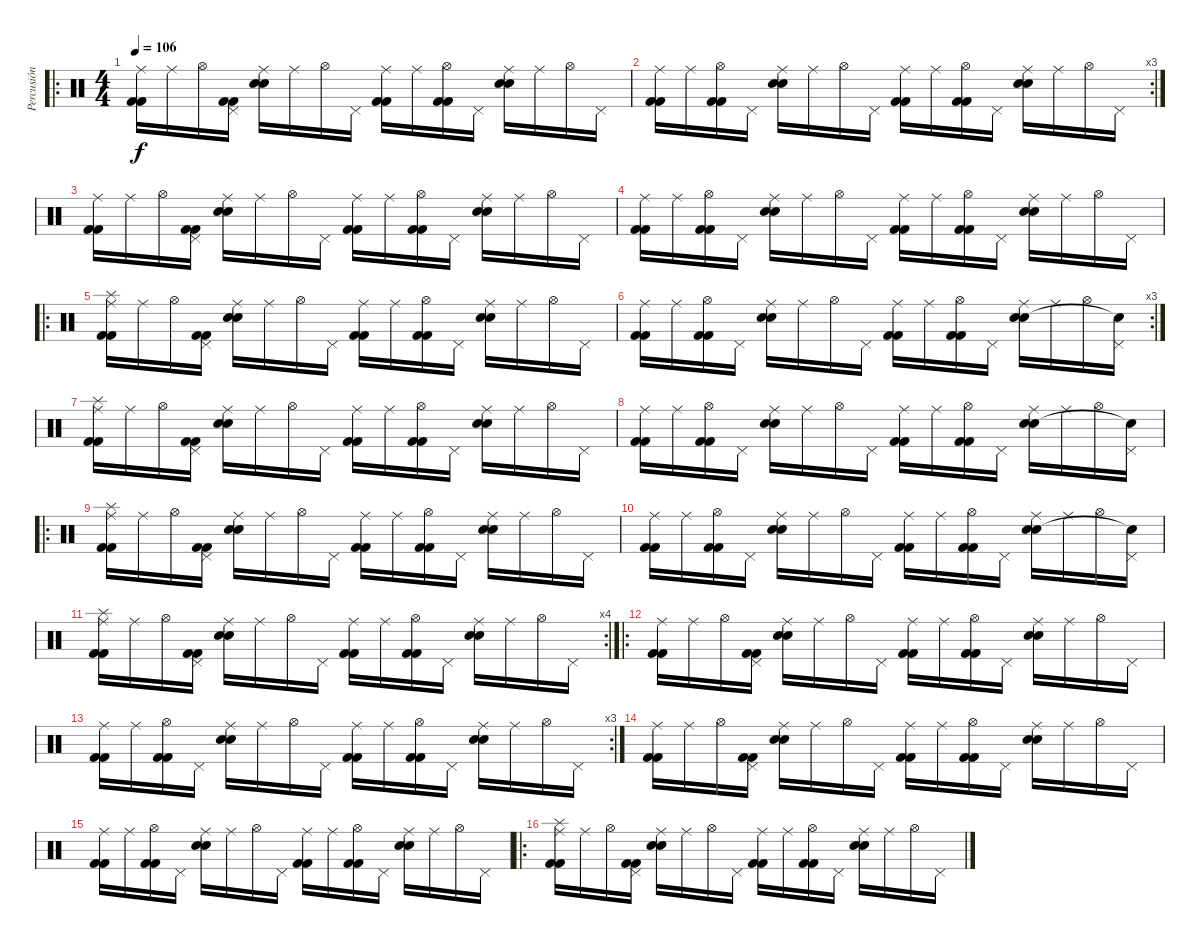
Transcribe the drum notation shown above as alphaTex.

\track ("Percusión" "Percusión") {instrument percussion}
\staff {score}
\articulation defaults
\ro
\ts (4 4)
\tempo 106
\clef neutral
\ks c
("Ride (middle)" "Kick (hit) 2" "Kick (hit) 2").16{dy f} "Ride (middle)".16 "Hi-Hat (open)".16 ("Pedal Hi-Hat (hit)" "Kick (hit) 2" "Kick (hit) 2").16 ("Ride (middle)" "Electric Snare (hit)" "Electric Snare (hit)").16 "Ride (middle)".16 "Hi-Hat (open)".16 "Pedal Hi-Hat (hit)".16 ("Ride (middle)" "Kick (hit) 2" "Kick (hit) 2").16 "Ride (middle)".16 ("Hi-Hat (open)" "Kick (hit) 2" "Kick (hit) 2").16 "Pedal Hi-Hat (hit)".16 ("Ride (middle)" "Electric Snare (hit)" "Electric Snare (hit)").16 "Ride (middle)".16 "Hi-Hat (open)".16 "Pedal Hi-Hat (hit)".16 |
\rc 3
("Ride (middle)" "Kick (hit) 2" "Kick (hit) 2").16 "Ride (middle)".16 ("Hi-Hat (open)" "Kick (hit) 2" "Kick (hit) 2").16 "Pedal Hi-Hat (hit)".16 ("Ride (middle)" "Electric Snare (hit)" "Electric Snare (hit)").16 "Ride (middle)".16 "Hi-Hat (open)".16 "Pedal Hi-Hat (hit)".16 ("Ride (middle)" "Kick (hit) 2" "Kick (hit) 2").16 "Ride (middle)".16 ("Hi-Hat (open)" "Kick (hit) 2" "Kick (hit) 2").16 "Pedal Hi-Hat (hit)".16 ("Ride (middle)" "Electric Snare (hit)" "Electric Snare (hit)").16 "Ride (middle)".16 "Hi-Hat (open)".16 "Pedal Hi-Hat (hit)".16 |
("Ride (middle)" "Kick (hit) 2" "Kick (hit) 2").16 "Ride (middle)".16 "Hi-Hat (open)".16 ("Pedal Hi-Hat (hit)" "Kick (hit) 2" "Kick (hit) 2").16 ("Ride (middle)" "Electric Snare (hit)" "Electric Snare (hit)").16 "Ride (middle)".16 "Hi-Hat (open)".16 "Pedal Hi-Hat (hit)".16 ("Ride (middle)" "Kick (hit) 2" "Kick (hit) 2").16 "Ride (middle)".16 ("Hi-Hat (open)" "Kick (hit) 2" "Kick (hit) 2").16 "Pedal Hi-Hat (hit)".16 ("Ride (middle)" "Electric Snare (hit)" "Electric Snare (hit)").16 "Ride (middle)".16 "Hi-Hat (open)".16 "Pedal Hi-Hat (hit)".16 |
("Ride (middle)" "Kick (hit) 2" "Kick (hit) 2").16 "Ride (middle)".16 ("Hi-Hat (open)" "Kick (hit) 2" "Kick (hit) 2").16 "Pedal Hi-Hat (hit)".16 ("Ride (middle)" "Electric Snare (hit)" "Electric Snare (hit)").16 "Ride (middle)".16 "Hi-Hat (open)".16 "Pedal Hi-Hat (hit)".16 ("Ride (middle)" "Kick (hit) 2" "Kick (hit) 2").16 "Ride (middle)".16 ("Hi-Hat (open)" "Kick (hit) 2" "Kick (hit) 2").16 "Pedal Hi-Hat (hit)".16 ("Ride (middle)" "Electric Snare (hit)" "Electric Snare (hit)").16 "Ride (middle)".16 "Hi-Hat (open)".16 "Pedal Hi-Hat (hit)".16 |
\ro
("Ride (middle)" "Splash (hit)" "Kick (hit) 2" "Kick (hit) 2").16 "Ride (middle)".16 "Hi-Hat (open)".16 ("Pedal Hi-Hat (hit)" "Kick (hit) 2" "Kick (hit) 2").16 ("Ride (middle)" "Electric Snare (hit)" "Electric Snare (hit)").16 "Ride (middle)".16 "Hi-Hat (open)".16 "Pedal Hi-Hat (hit)".16 ("Ride (middle)" "Kick (hit) 2" "Kick (hit) 2").16 "Ride (middle)".16 ("Hi-Hat (open)" "Kick (hit) 2" "Kick (hit) 2").16 "Pedal Hi-Hat (hit)".16 ("Ride (middle)" "Electric Snare (hit)" "Electric Snare (hit)").16 "Ride (middle)".16 "Hi-Hat (open)".16 "Pedal Hi-Hat (hit)".16 |
\rc 3
("Ride (middle)" "Kick (hit) 2" "Kick (hit) 2").16 "Ride (middle)".16 ("Hi-Hat (open)" "Kick (hit) 2" "Kick (hit) 2").16 "Pedal Hi-Hat (hit)".16 ("Ride (middle)" "Electric Snare (hit)" "Electric Snare (hit)").16 "Ride (middle)".16 "Hi-Hat (open)".16 "Pedal Hi-Hat (hit)".16 ("Ride (middle)" "Kick (hit) 2" "Kick (hit) 2").16 "Ride (middle)".16 ("Hi-Hat (open)" "Kick (hit) 2" "Kick (hit) 2").16 "Pedal Hi-Hat (hit)".16 ("Ride (middle)" "Electric Snare (hit)" "Electric Snare (hit)").16 "Ride (middle)".16 "Hi-Hat (open)".16 ("Pedal Hi-Hat (hit)" "Snare (hit)"{t}).16 |
("Ride (middle)" "Splash (hit)" "Kick (hit) 2" "Kick (hit) 2").16 "Ride (middle)".16 "Hi-Hat (open)".16 ("Pedal Hi-Hat (hit)" "Kick (hit) 2" "Kick (hit) 2").16 ("Ride (middle)" "Electric Snare (hit)" "Electric Snare (hit)").16 "Ride (middle)".16 "Hi-Hat (open)".16 "Pedal Hi-Hat (hit)".16 ("Ride (middle)" "Kick (hit) 2" "Kick (hit) 2").16 "Ride (middle)".16 ("Hi-Hat (open)" "Kick (hit) 2" "Kick (hit) 2").16 "Pedal Hi-Hat (hit)".16 ("Ride (middle)" "Electric Snare (hit)" "Electric Snare (hit)").16 "Ride (middle)".16 "Hi-Hat (open)".16 "Pedal Hi-Hat (hit)".16 |
("Ride (middle)" "Kick (hit) 2" "Kick (hit) 2").16 "Ride (middle)".16 ("Hi-Hat (open)" "Kick (hit) 2" "Kick (hit) 2").16 "Pedal Hi-Hat (hit)".16 ("Ride (middle)" "Electric Snare (hit)" "Electric Snare (hit)").16 "Ride (middle)".16 "Hi-Hat (open)".16 "Pedal Hi-Hat (hit)".16 ("Ride (middle)" "Kick (hit) 2" "Kick (hit) 2").16 "Ride (middle)".16 ("Hi-Hat (open)" "Kick (hit) 2" "Kick (hit) 2").16 "Pedal Hi-Hat (hit)".16 ("Ride (middle)" "Electric Snare (hit)" "Electric Snare (hit)").16 "Ride (middle)".16 "Hi-Hat (open)".16 ("Pedal Hi-Hat (hit)" "Snare (hit)"{t}).16 |
\ro
("Ride (middle)" "Splash (hit)" "Kick (hit) 2" "Kick (hit) 2").16 "Ride (middle)".16 "Hi-Hat (open)".16 ("Pedal Hi-Hat (hit)" "Kick (hit) 2" "Kick (hit) 2").16 ("Ride (middle)" "Electric Snare (hit)" "Electric Snare (hit)").16 "Ride (middle)".16 "Hi-Hat (open)".16 "Pedal Hi-Hat (hit)".16 ("Ride (middle)" "Kick (hit) 2" "Kick (hit) 2").16 "Ride (middle)".16 ("Hi-Hat (open)" "Kick (hit) 2" "Kick (hit) 2").16 "Pedal Hi-Hat (hit)".16 ("Ride (middle)" "Electric Snare (hit)" "Electric Snare (hit)").16 "Ride (middle)".16 "Hi-Hat (open)".16 "Pedal Hi-Hat (hit)".16 |
("Ride (middle)" "Kick (hit) 2" "Kick (hit) 2").16 "Ride (middle)".16 ("Hi-Hat (open)" "Kick (hit) 2" "Kick (hit) 2").16 "Pedal Hi-Hat (hit)".16 ("Ride (middle)" "Electric Snare (hit)" "Electric Snare (hit)").16 "Ride (middle)".16 "Hi-Hat (open)".16 "Pedal Hi-Hat (hit)".16 ("Ride (middle)" "Kick (hit) 2" "Kick (hit) 2").16 "Ride (middle)".16 ("Hi-Hat (open)" "Kick (hit) 2" "Kick (hit) 2").16 "Pedal Hi-Hat (hit)".16 ("Ride (middle)" "Electric Snare (hit)" "Electric Snare (hit)").16 "Ride (middle)".16 "Hi-Hat (open)".16 ("Pedal Hi-Hat (hit)" "Snare (hit)"{t}).16 |
\rc 4
("Ride (middle)" "Splash (hit)" "Kick (hit) 2" "Kick (hit) 2").16 "Ride (middle)".16 "Hi-Hat (open)".16 ("Pedal Hi-Hat (hit)" "Kick (hit) 2" "Kick (hit) 2").16 ("Ride (middle)" "Electric Snare (hit)" "Electric Snare (hit)").16 "Ride (middle)".16 "Hi-Hat (open)".16 "Pedal Hi-Hat (hit)".16 ("Ride (middle)" "Kick (hit) 2" "Kick (hit) 2").16 "Ride (middle)".16 ("Hi-Hat (open)" "Kick (hit) 2" "Kick (hit) 2").16 "Pedal Hi-Hat (hit)".16 ("Ride (middle)" "Electric Snare (hit)" "Electric Snare (hit)").16 "Ride (middle)".16 "Hi-Hat (open)".16 "Pedal Hi-Hat (hit)".16 |
\ro
("Ride (middle)" "Kick (hit) 2" "Kick (hit) 2").16 "Ride (middle)".16 "Hi-Hat (open)".16 ("Pedal Hi-Hat (hit)" "Kick (hit) 2" "Kick (hit) 2").16 ("Ride (middle)" "Electric Snare (hit)" "Electric Snare (hit)").16 "Ride (middle)".16 "Hi-Hat (open)".16 "Pedal Hi-Hat (hit)".16 ("Ride (middle)" "Kick (hit) 2" "Kick (hit) 2").16 "Ride (middle)".16 ("Hi-Hat (open)" "Kick (hit) 2" "Kick (hit) 2").16 "Pedal Hi-Hat (hit)".16 ("Ride (middle)" "Electric Snare (hit)" "Electric Snare (hit)").16 "Ride (middle)".16 "Hi-Hat (open)".16 "Pedal Hi-Hat (hit)".16 |
\rc 3
("Ride (middle)" "Kick (hit) 2" "Kick (hit) 2").16 "Ride (middle)".16 ("Hi-Hat (open)" "Kick (hit) 2" "Kick (hit) 2").16 "Pedal Hi-Hat (hit)".16 ("Ride (middle)" "Electric Snare (hit)" "Electric Snare (hit)").16 "Ride (middle)".16 "Hi-Hat (open)".16 "Pedal Hi-Hat (hit)".16 ("Ride (middle)" "Kick (hit) 2" "Kick (hit) 2").16 "Ride (middle)".16 ("Hi-Hat (open)" "Kick (hit) 2" "Kick (hit) 2").16 "Pedal Hi-Hat (hit)".16 ("Ride (middle)" "Electric Snare (hit)" "Electric Snare (hit)").16 "Ride (middle)".16 "Hi-Hat (open)".16 "Pedal Hi-Hat (hit)".16 |
("Ride (middle)" "Kick (hit) 2" "Kick (hit) 2").16 "Ride (middle)".16 "Hi-Hat (open)".16 ("Pedal Hi-Hat (hit)" "Kick (hit) 2" "Kick (hit) 2").16 ("Ride (middle)" "Electric Snare (hit)" "Electric Snare (hit)").16 "Ride (middle)".16 "Hi-Hat (open)".16 "Pedal Hi-Hat (hit)".16 ("Ride (middle)" "Kick (hit) 2" "Kick (hit) 2").16 "Ride (middle)".16 ("Hi-Hat (open)" "Kick (hit) 2" "Kick (hit) 2").16 "Pedal Hi-Hat (hit)".16 ("Ride (middle)" "Electric Snare (hit)" "Electric Snare (hit)").16 "Ride (middle)".16 "Hi-Hat (open)".16 "Pedal Hi-Hat (hit)".16 |
("Ride (middle)" "Kick (hit) 2" "Kick (hit) 2").16 "Ride (middle)".16 ("Hi-Hat (open)" "Kick (hit) 2" "Kick (hit) 2").16 "Pedal Hi-Hat (hit)".16 ("Ride (middle)" "Electric Snare (hit)" "Electric Snare (hit)").16 "Ride (middle)".16 "Hi-Hat (open)".16 "Pedal Hi-Hat (hit)".16 ("Ride (middle)" "Kick (hit) 2" "Kick (hit) 2").16 "Ride (middle)".16 ("Hi-Hat (open)" "Kick (hit) 2" "Kick (hit) 2").16 "Pedal Hi-Hat (hit)".16 ("Ride (middle)" "Electric Snare (hit)" "Electric Snare (hit)").16 "Ride (middle)".16 "Hi-Hat (open)".16 "Pedal Hi-Hat (hit)".16 |
\ro
("Ride (middle)" "Splash (hit)" "Kick (hit) 2" "Kick (hit) 2").16 "Ride (middle)".16 "Hi-Hat (open)".16 ("Pedal Hi-Hat (hit)" "Kick (hit) 2" "Kick (hit) 2").16 ("Ride (middle)" "Electric Snare (hit)" "Electric Snare (hit)").16 "Ride (middle)".16 "Hi-Hat (open)".16 "Pedal Hi-Hat (hit)".16 ("Ride (middle)" "Kick (hit) 2" "Kick (hit) 2").16 "Ride (middle)".16 ("Hi-Hat (open)" "Kick (hit) 2" "Kick (hit) 2").16 "Pedal Hi-Hat (hit)".16 ("Ride (middle)" "Electric Snare (hit)" "Electric Snare (hit)").16 "Ride (middle)".16 "Hi-Hat (open)".16 "Pedal Hi-Hat (hit)".16
